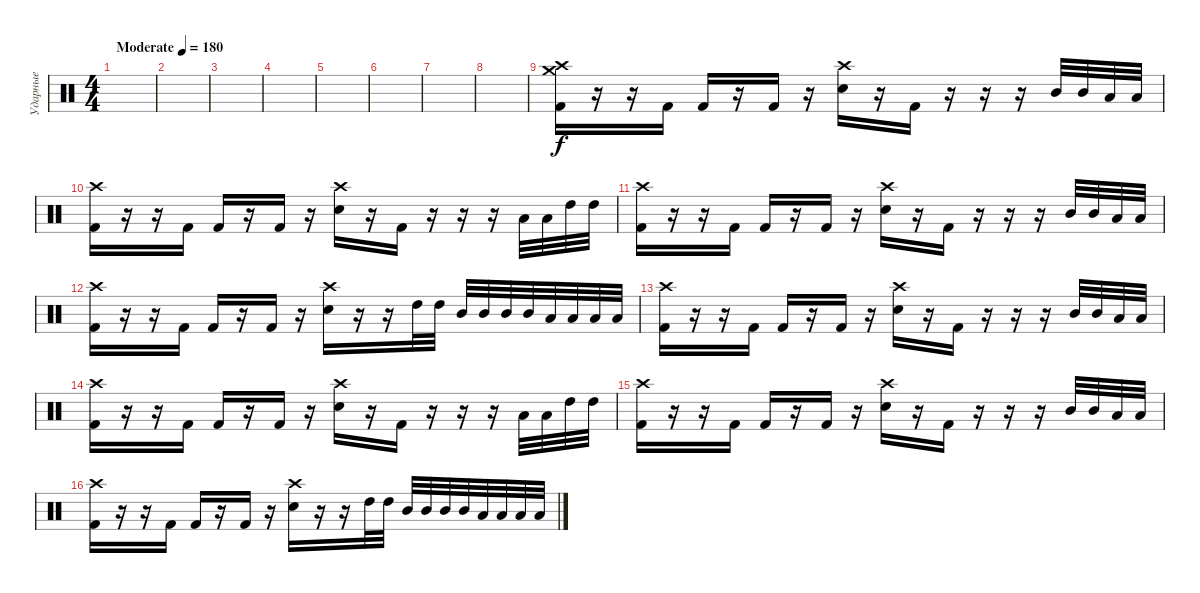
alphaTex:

\track ("Ударные" "Ударные") {instrument percussion}
\staff {score}
\articulation defaults
\ts (4 4)
\tempo (180 "Moderate")
\clef neutral
\ks c
|
|
|
|
|
|
|
|
("Crash medium (hit)" "Crash high (hit)" "Kick (hit) 2").16 r.16 r.16 "Kick (hit) 2".16 "Kick (hit) 2".16 r.16 "Kick (hit) 2".16 r.16 ("Crash high (hit)" "Electric Snare (hit)").16 r.16 "Kick (hit) 2".16 r.16 r.16 r.16 "Mid Tom (hit)".32 "Mid Tom (hit)".32 "Low Tom (hit)".32 "Low Tom (hit)".32 |
("Crash high (hit)" "Kick (hit) 2").16 r.16 r.16 "Kick (hit) 2".16 "Kick (hit) 2".16 r.16 "Kick (hit) 2".16 r.16 ("Crash high (hit)" "Electric Snare (hit)").16 r.16 "Kick (hit) 2".16 r.16 r.16 r.16 "Low Tom (hit)".32 "Low Tom (hit)".32 "High Tom (hit)".32 "High Tom (hit)".32 |
("Crash high (hit)" "Kick (hit) 2").16 r.16 r.16 "Kick (hit) 2".16 "Kick (hit) 2".16 r.16 "Kick (hit) 2".16 r.16 ("Crash high (hit)" "Electric Snare (hit)").16 r.16 "Kick (hit) 2".16 r.16 r.16 r.16 "Mid Tom (hit)".32 "Mid Tom (hit)".32 "Low Tom (hit)".32 "Low Tom (hit)".32 |
("Crash high (hit)" "Kick (hit) 2").16 r.16 r.16 "Kick (hit) 2".16 "Kick (hit) 2".16 r.16 "Kick (hit) 2".16 r.16 ("Crash high (hit)" "Electric Snare (hit)").16 r.16 r.16 "High Tom (hit)".32 "High Tom (hit)".32 "Mid Tom (hit)".32 "Mid Tom (hit)".32 "Mid Tom (hit)".32 "Mid Tom (hit)".32 "Low Tom (hit)".32 "Low Tom (hit)".32 "Low Tom (hit)".32 "Low Tom (hit)".32 |
("Crash high (hit)" "Kick (hit) 2").16 r.16 r.16 "Kick (hit) 2".16 "Kick (hit) 2".16 r.16 "Kick (hit) 2".16 r.16 ("Crash high (hit)" "Electric Snare (hit)").16 r.16 "Kick (hit) 2".16 r.16 r.16 r.16 "Mid Tom (hit)".32 "Mid Tom (hit)".32 "Low Tom (hit)".32 "Low Tom (hit)".32 |
("Crash high (hit)" "Kick (hit) 2").16 r.16 r.16 "Kick (hit) 2".16 "Kick (hit) 2".16 r.16 "Kick (hit) 2".16 r.16 ("Crash high (hit)" "Electric Snare (hit)").16 r.16 "Kick (hit) 2".16 r.16 r.16 r.16 "Low Tom (hit)".32 "Low Tom (hit)".32 "High Tom (hit)".32 "High Tom (hit)".32 |
("Crash high (hit)" "Kick (hit) 2").16 r.16 r.16 "Kick (hit) 2".16 "Kick (hit) 2".16 r.16 "Kick (hit) 2".16 r.16 ("Crash high (hit)" "Electric Snare (hit)").16 r.16 "Kick (hit) 2".16 r.16 r.16 r.16 "Mid Tom (hit)".32 "Mid Tom (hit)".32 "Low Tom (hit)".32 "Low Tom (hit)".32 |
("Crash high (hit)" "Kick (hit) 2").16 r.16 r.16 "Kick (hit) 2".16 "Kick (hit) 2".16 r.16 "Kick (hit) 2".16 r.16 ("Crash high (hit)" "Electric Snare (hit)").16 r.16 r.16 "High Tom (hit)".32 "High Tom (hit)".32 "Mid Tom (hit)".32 "Mid Tom (hit)".32 "Mid Tom (hit)".32 "Mid Tom (hit)".32 "Low Tom (hit)".32 "Low Tom (hit)".32 "Low Tom (hit)".32 "Low Tom (hit)".32
